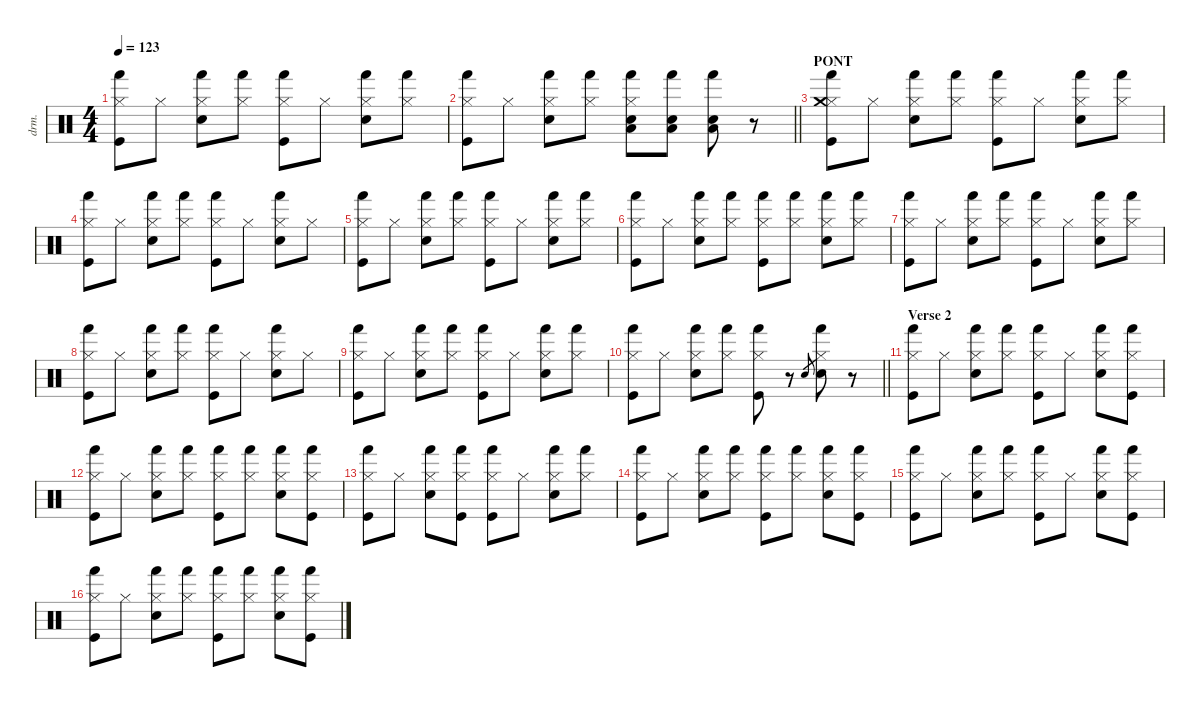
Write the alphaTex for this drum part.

\defaultSystemsLayout 4
\hideDynamics
\bracketExtendMode nobrackets
\otherSystemsTrackNameOrientation horizontal
\track ("Drums" "drm.") {defaultSystemsLayout 4 instrument percussion}
\staff {score}
\articulation defaults
\ts (4 4)
\tempo 123
\clef neutral
\ks c
("Hand (hit)" "Hi-Hat (closed)" "Kick (hit)").8{dy fff beam Down} "Hi-Hat (closed)".8{beam Down} ("Hand (hit)" "Hi-Hat (closed)" "Snare (hit) 2").8{beam Down} ("Hi-Hat (closed)" "Hand (hit)").8{beam Down} ("Hand (hit)" "Hi-Hat (closed)" "Kick (hit)").8{beam Down} "Hi-Hat (closed)".8{beam Down} ("Snare (hit) 2" "Hand (hit)" "Hi-Hat (closed)").8{beam Down} ("Hi-Hat (closed)" "Hand (hit)").8{beam Down} |
\barLineRight lightlight
("Hi-Hat (closed)" "Kick (hit)" "Hand (hit)").8{beam Down} "Hi-Hat (closed)".8{beam Down} ("Hand (hit)" "Snare (hit) 2" "Hi-Hat (closed)").8{beam Down} ("Hand (hit)" "Hi-Hat (closed)").8{beam Down} ("Hi-Hat (closed)" "Snare (hit) 2" "Low Tom (hit)" "Hand (hit)").8{beam Down} ("Snare (hit) 2" "Low Tom (hit)" "Hand (hit)").8{beam Down} ("Snare (hit) 2" "Low Tom (hit)" "Hand (hit)").8{beam Down} r.8{beam Down} |
\section ("" "PONT")
("Kick (hit)" "Hi-Hat (closed)" "Crash medium (hit)" "Hand (hit)").8{beam Down} "Hi-Hat (closed)".8{beam Down} ("Snare (hit) 2" "Hi-Hat (closed)" "Hand (hit)").8{beam Down} ("Hi-Hat (closed)" "Hand (hit)").8{beam Down} ("Kick (hit)" "Hi-Hat (closed)" "Hand (hit)").8{beam Down} "Hi-Hat (closed)".8{beam Down} ("Hand (hit)" "Hi-Hat (closed)" "Snare (hit) 2").8{beam Down} ("Hi-Hat (closed)" "Hand (hit)").8{beam Down} |
("Hi-Hat (closed)" "Hand (hit)" "Kick (hit)").8{beam Down} "Hi-Hat (closed)".8{beam Down} ("Hi-Hat (closed)" "Snare (hit) 2" "Hand (hit)").8{beam Down} ("Hand (hit)" "Hi-Hat (closed)").8{beam Down} ("Hi-Hat (closed)" "Kick (hit)" "Hand (hit)").8{beam Down} "Hi-Hat (closed)".8{beam Down} ("Hi-Hat (closed)" "Snare (hit) 2" "Hand (hit)").8{beam Down} "Hi-Hat (closed)".8{beam Down} |
("Hi-Hat (closed)" "Hand (hit)" "Kick (hit)").8{beam Down} "Hi-Hat (closed)".8{beam Down} ("Hi-Hat (closed)" "Hand (hit)" "Snare (hit) 2").8{beam Down} ("Hi-Hat (closed)" "Hand (hit)").8{beam Down} ("Hi-Hat (closed)" "Kick (hit)" "Hand (hit)").8{beam Down} "Hi-Hat (closed)".8{beam Down} ("Hi-Hat (closed)" "Hand (hit)" "Snare (hit) 2").8{beam Down} ("Hi-Hat (closed)" "Hand (hit)").8{beam Down} |
("Hi-Hat (closed)" "Kick (hit)" "Hand (hit)").8{beam Down} "Hi-Hat (closed)".8{beam Down} ("Hi-Hat (closed)" "Hand (hit)" "Snare (hit) 2").8{beam Down} ("Hi-Hat (closed)" "Hand (hit)").8{beam Down} ("Hi-Hat (closed)" "Hand (hit)" "Kick (hit)").8{beam Down} ("Hi-Hat (closed)" "Hand (hit)").8{beam Down} ("Hi-Hat (closed)" "Snare (hit) 2" "Hand (hit)").8{beam Down} ("Hi-Hat (closed)" "Hand (hit)").8{beam Down} |
("Hi-Hat (closed)" "Kick (hit)" "Hand (hit)").8{beam Down} "Hi-Hat (closed)".8{beam Down} ("Snare (hit) 2" "Hi-Hat (closed)" "Hand (hit)").8{beam Down} ("Hand (hit)" "Hi-Hat (closed)").8{beam Down} ("Hi-Hat (closed)" "Kick (hit)" "Hand (hit)").8{beam Down} "Hi-Hat (closed)".8{beam Down} ("Hi-Hat (closed)" "Snare (hit) 2" "Hand (hit)").8{beam Down} ("Hi-Hat (closed)" "Hand (hit)").8{beam Down} |
("Hi-Hat (closed)" "Hand (hit)" "Kick (hit)").8{beam Down} "Hi-Hat (closed)".8{beam Down} ("Hi-Hat (closed)" "Snare (hit) 2" "Hand (hit)").8{beam Down} ("Hand (hit)" "Hi-Hat (closed)").8{beam Down} ("Hi-Hat (closed)" "Kick (hit)" "Hand (hit)").8{beam Down} "Hi-Hat (closed)".8{beam Down} ("Hi-Hat (closed)" "Snare (hit) 2" "Hand (hit)").8{beam Down} "Hi-Hat (closed)".8{beam Down} |
("Hi-Hat (closed)" "Hand (hit)" "Kick (hit)").8{beam Down} "Hi-Hat (closed)".8{beam Down} ("Hi-Hat (closed)" "Hand (hit)" "Snare (hit) 2").8{beam Down} ("Hi-Hat (closed)" "Hand (hit)").8{beam Down} ("Hi-Hat (closed)" "Kick (hit)" "Hand (hit)").8{beam Down} "Hi-Hat (closed)".8{beam Down} ("Hi-Hat (closed)" "Hand (hit)" "Snare (hit) 2").8{beam Down} ("Hi-Hat (closed)" "Hand (hit)").8{beam Down} |
\barLineRight lightlight
("Hi-Hat (closed)" "Kick (hit)" "Hand (hit)").8{beam Down} "Hi-Hat (closed)".8{beam Down} ("Hi-Hat (closed)" "Hand (hit)" "Snare (hit) 2").8{beam Down} ("Hi-Hat (closed)" "Hand (hit)").8{beam Down} ("Hi-Hat (closed)" "Kick (hit)" "Hand (hit)").8{beam Down} r.8{beam Down} "Electric Snare (hit)".8{gr dy mp beam Up} ("Hi-Hat (closed)" "Snare (hit) 2" "Hand (hit)").8{dy fff beam Down} r.8{beam Down} |
\section ("" "Verse 2")
("Kick (hit)" "Hi-Hat (closed)" "Hand (hit)").8{beam Down} "Hi-Hat (closed)".8{beam Down} ("Snare (hit) 2" "Hand (hit)" "Hi-Hat (closed)").8{beam Down} ("Hi-Hat (closed)" "Hand (hit)").8{beam Down} ("Hand (hit)" "Kick (hit)" "Hi-Hat (closed)").8{beam Down} "Hi-Hat (closed)".8{beam Down} ("Hand (hit)" "Snare (hit) 2" "Hi-Hat (closed)").8{beam Down} ("Hi-Hat (closed)" "Hand (hit)" "Kick (hit)").8{beam Down} |
("Hi-Hat (closed)" "Hand (hit)" "Kick (hit)").8{beam Down} "Hi-Hat (closed)".8{beam Down} ("Snare (hit) 2" "Hand (hit)" "Hi-Hat (closed)").8{beam Down} ("Hi-Hat (closed)" "Hand (hit)").8{beam Down} ("Hand (hit)" "Hi-Hat (closed)" "Kick (hit)").8{beam Down} ("Hi-Hat (closed)" "Hand (hit)").8{beam Down} ("Hand (hit)" "Snare (hit) 2" "Hi-Hat (closed)").8{beam Down} ("Hand (hit)" "Hi-Hat (closed)" "Kick (hit)").8{beam Down} |
("Hi-Hat (closed)" "Hand (hit)" "Kick (hit)").8{beam Down} "Hi-Hat (closed)".8{beam Down} ("Snare (hit) 2" "Hi-Hat (closed)" "Hand (hit)").8{beam Down} ("Hi-Hat (closed)" "Kick (hit)" "Hand (hit)").8{beam Down} ("Hi-Hat (closed)" "Hand (hit)" "Kick (hit)").8{beam Down} "Hi-Hat (closed)".8{beam Down} ("Snare (hit) 2" "Hand (hit)" "Hi-Hat (closed)").8{beam Down} ("Hand (hit)" "Hi-Hat (closed)").8{beam Down} |
("Hi-Hat (closed)" "Hand (hit)" "Kick (hit)").8{beam Down} "Hi-Hat (closed)".8{beam Down} ("Hi-Hat (closed)" "Hand (hit)" "Snare (hit) 2").8{beam Down} ("Hi-Hat (closed)" "Hand (hit)").8{beam Down} ("Hi-Hat (closed)" "Kick (hit)" "Hand (hit)").8{beam Down} ("Hand (hit)" "Hi-Hat (closed)").8{beam Down} ("Hand (hit)" "Hi-Hat (closed)" "Snare (hit) 2").8{beam Down} ("Hi-Hat (closed)" "Hand (hit)" "Kick (hit)").8{beam Down} |
("Hand (hit)" "Kick (hit)" "Hi-Hat (closed)").8{beam Down} "Hi-Hat (closed)".8{beam Down} ("Snare (hit) 2" "Hand (hit)" "Hi-Hat (closed)").8{beam Down} ("Hand (hit)" "Hi-Hat (closed)").8{beam Down} ("Hi-Hat (closed)" "Hand (hit)" "Kick (hit)").8{beam Down} "Hi-Hat (closed)".8{beam Down} ("Hi-Hat (closed)" "Snare (hit) 2" "Hand (hit)").8{beam Down} ("Hi-Hat (closed)" "Kick (hit)" "Hand (hit)").8{beam Down} |
("Hi-Hat (closed)" "Hand (hit)" "Kick (hit)").8{beam Down} "Hi-Hat (closed)".8{beam Down} ("Hi-Hat (closed)" "Hand (hit)" "Snare (hit) 2").8{beam Down} ("Hi-Hat (closed)" "Hand (hit)").8{beam Down} ("Hi-Hat (closed)" "Kick (hit)" "Hand (hit)").8{beam Down} ("Hand (hit)" "Hi-Hat (closed)").8{beam Down} ("Hand (hit)" "Hi-Hat (closed)" "Snare (hit) 2").8{beam Down} ("Hi-Hat (closed)" "Hand (hit)" "Kick (hit)").8{beam Down}
